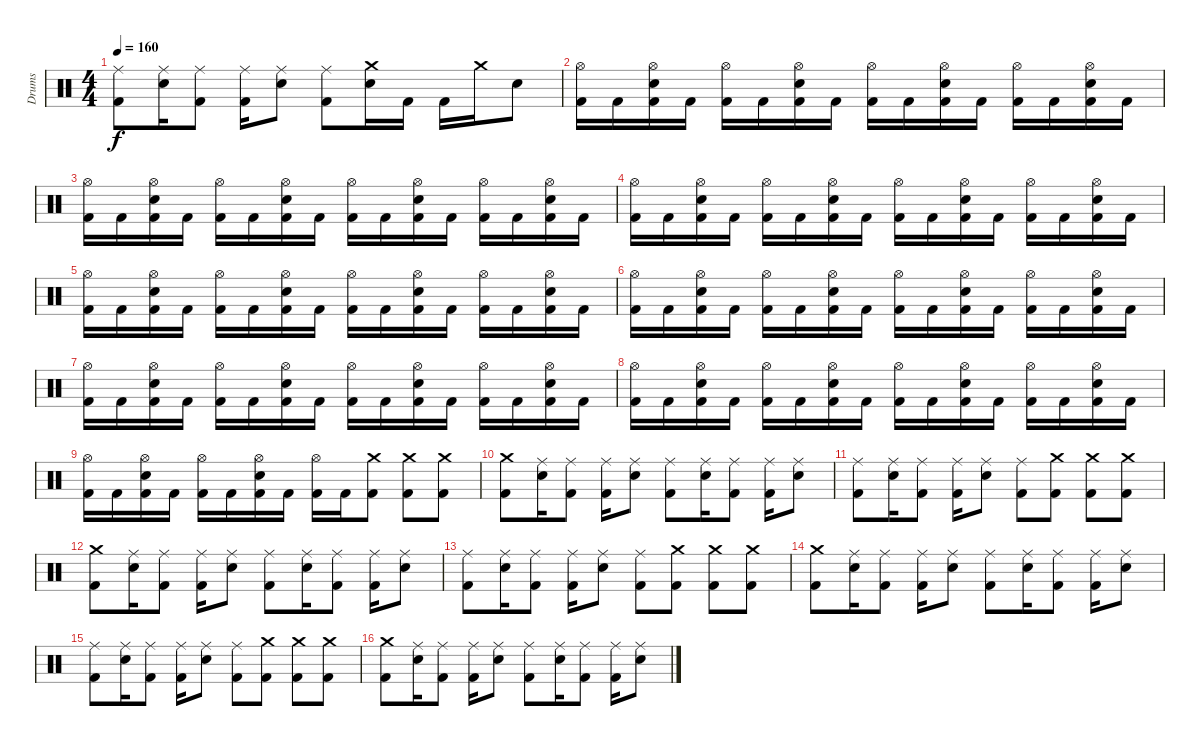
\track ("Drums" "Drums") {instrument percussion}
\staff {score}
\articulation defaults
\ts (4 4)
\tempo 160
\clef neutral
\ks c
("Ride (middle)" "Kick (hit) 2").8{dy f} ("Snare (hit) 2" "Ride (middle)").16 ("Ride (middle)" "Kick (hit) 2").8 ("Ride (middle)" "Kick (hit) 2").16 ("Snare (hit) 2" "Ride (middle)").8 ("Ride (middle)" "Kick (hit) 2").8 ("Snare (hit) 2" "Crash medium (hit)").16 "Kick (hit) 2".16 "Kick (hit) 2".16 "Crash medium (hit)".16 "Snare (hit) 2".8 |
("Hi-Hat (open)" "Kick (hit) 2").16 "Kick (hit) 2".16 ("Snare (hit) 2" "Hi-Hat (open)" "Kick (hit) 2").16 "Kick (hit) 2".16 ("Hi-Hat (open)" "Kick (hit) 2").16 "Kick (hit) 2".16 ("Snare (hit) 2" "Hi-Hat (open)" "Kick (hit) 2").16 "Kick (hit) 2".16 ("Hi-Hat (open)" "Kick (hit) 2").16 "Kick (hit) 2".16 ("Snare (hit) 2" "Hi-Hat (open)" "Kick (hit) 2").16 "Kick (hit) 2".16 ("Hi-Hat (open)" "Kick (hit) 2").16 "Kick (hit) 2".16 ("Snare (hit) 2" "Hi-Hat (open)" "Kick (hit) 2").16 "Kick (hit) 2".16 |
("Hi-Hat (open)" "Kick (hit) 2").16 "Kick (hit) 2".16 ("Snare (hit) 2" "Hi-Hat (open)" "Kick (hit) 2").16 "Kick (hit) 2".16 ("Hi-Hat (open)" "Kick (hit) 2").16 "Kick (hit) 2".16 ("Snare (hit) 2" "Hi-Hat (open)" "Kick (hit) 2").16 "Kick (hit) 2".16 ("Hi-Hat (open)" "Kick (hit) 2").16 "Kick (hit) 2".16 ("Snare (hit) 2" "Hi-Hat (open)" "Kick (hit) 2").16 "Kick (hit) 2".16 ("Hi-Hat (open)" "Kick (hit) 2").16 "Kick (hit) 2".16 ("Snare (hit) 2" "Hi-Hat (open)" "Kick (hit) 2").16 "Kick (hit) 2".16 |
("Hi-Hat (open)" "Kick (hit) 2").16 "Kick (hit) 2".16 ("Snare (hit) 2" "Hi-Hat (open)" "Kick (hit) 2").16 "Kick (hit) 2".16 ("Hi-Hat (open)" "Kick (hit) 2").16 "Kick (hit) 2".16 ("Snare (hit) 2" "Hi-Hat (open)" "Kick (hit) 2").16 "Kick (hit) 2".16 ("Hi-Hat (open)" "Kick (hit) 2").16 "Kick (hit) 2".16 ("Snare (hit) 2" "Hi-Hat (open)" "Kick (hit) 2").16 "Kick (hit) 2".16 ("Hi-Hat (open)" "Kick (hit) 2").16 "Kick (hit) 2".16 ("Snare (hit) 2" "Hi-Hat (open)" "Kick (hit) 2").16 "Kick (hit) 2".16 |
("Hi-Hat (open)" "Kick (hit) 2").16 "Kick (hit) 2".16 ("Snare (hit) 2" "Hi-Hat (open)" "Kick (hit) 2").16 "Kick (hit) 2".16 ("Hi-Hat (open)" "Kick (hit) 2").16 "Kick (hit) 2".16 ("Snare (hit) 2" "Hi-Hat (open)" "Kick (hit) 2").16 "Kick (hit) 2".16 ("Hi-Hat (open)" "Kick (hit) 2").16 "Kick (hit) 2".16 ("Snare (hit) 2" "Hi-Hat (open)" "Kick (hit) 2").16 "Kick (hit) 2".16 ("Hi-Hat (open)" "Kick (hit) 2").16 "Kick (hit) 2".16 ("Snare (hit) 2" "Hi-Hat (open)" "Kick (hit) 2").16 "Kick (hit) 2".16 |
("Hi-Hat (open)" "Kick (hit) 2").16 "Kick (hit) 2".16 ("Snare (hit) 2" "Hi-Hat (open)" "Kick (hit) 2").16 "Kick (hit) 2".16 ("Hi-Hat (open)" "Kick (hit) 2").16 "Kick (hit) 2".16 ("Snare (hit) 2" "Hi-Hat (open)" "Kick (hit) 2").16 "Kick (hit) 2".16 ("Hi-Hat (open)" "Kick (hit) 2").16 "Kick (hit) 2".16 ("Snare (hit) 2" "Hi-Hat (open)" "Kick (hit) 2").16 "Kick (hit) 2".16 ("Hi-Hat (open)" "Kick (hit) 2").16 "Kick (hit) 2".16 ("Snare (hit) 2" "Hi-Hat (open)" "Kick (hit) 2").16 "Kick (hit) 2".16 |
("Hi-Hat (open)" "Kick (hit) 2").16 "Kick (hit) 2".16 ("Snare (hit) 2" "Hi-Hat (open)" "Kick (hit) 2").16 "Kick (hit) 2".16 ("Hi-Hat (open)" "Kick (hit) 2").16 "Kick (hit) 2".16 ("Snare (hit) 2" "Hi-Hat (open)" "Kick (hit) 2").16 "Kick (hit) 2".16 ("Hi-Hat (open)" "Kick (hit) 2").16 "Kick (hit) 2".16 ("Snare (hit) 2" "Hi-Hat (open)" "Kick (hit) 2").16 "Kick (hit) 2".16 ("Hi-Hat (open)" "Kick (hit) 2").16 "Kick (hit) 2".16 ("Snare (hit) 2" "Hi-Hat (open)" "Kick (hit) 2").16 "Kick (hit) 2".16 |
("Hi-Hat (open)" "Kick (hit) 2").16 "Kick (hit) 2".16 ("Snare (hit) 2" "Hi-Hat (open)" "Kick (hit) 2").16 "Kick (hit) 2".16 ("Hi-Hat (open)" "Kick (hit) 2").16 "Kick (hit) 2".16 ("Snare (hit) 2" "Hi-Hat (open)" "Kick (hit) 2").16 "Kick (hit) 2".16 ("Hi-Hat (open)" "Kick (hit) 2").16 "Kick (hit) 2".16 ("Snare (hit) 2" "Hi-Hat (open)" "Kick (hit) 2").16 "Kick (hit) 2".16 ("Hi-Hat (open)" "Kick (hit) 2").16 "Kick (hit) 2".16 ("Snare (hit) 2" "Hi-Hat (open)" "Kick (hit) 2").16 "Kick (hit) 2".16 |
("Hi-Hat (open)" "Kick (hit) 2").16 "Kick (hit) 2".16 ("Snare (hit) 2" "Hi-Hat (open)" "Kick (hit) 2").16 "Kick (hit) 2".16 ("Hi-Hat (open)" "Kick (hit) 2").16 "Kick (hit) 2".16 ("Snare (hit) 2" "Hi-Hat (open)" "Kick (hit) 2").16 "Kick (hit) 2".16 ("Hi-Hat (open)" "Kick (hit) 2").16 "Kick (hit) 2".16 ("Crash medium (hit)" "Kick (hit) 2").8 ("Crash medium (hit)" "Kick (hit) 2").8 ("Crash medium (hit)" "Kick (hit) 2").8 |
("Crash medium (hit)" "Kick (hit) 2").8 ("Snare (hit) 2" "Ride (middle)").16 ("Ride (middle)" "Kick (hit) 2").8 ("Ride (middle)" "Kick (hit) 2").16 ("Snare (hit) 2" "Ride (middle)").8 ("Ride (middle)" "Kick (hit) 2").8 ("Snare (hit) 2" "Ride (middle)").16 ("Ride (middle)" "Kick (hit) 2").8 ("Ride (middle)" "Kick (hit) 2").16 ("Snare (hit) 2" "Ride (middle)").8 |
("Ride (middle)" "Kick (hit) 2").8 ("Snare (hit) 2" "Ride (middle)").16 ("Ride (middle)" "Kick (hit) 2").8 ("Ride (middle)" "Kick (hit) 2").16 ("Snare (hit) 2" "Ride (middle)").8 ("Ride (middle)" "Kick (hit) 2").8 ("Crash medium (hit)" "Kick (hit) 2").8 ("Crash medium (hit)" "Kick (hit) 2").8 ("Crash medium (hit)" "Kick (hit) 2").8 |
("Crash medium (hit)" "Kick (hit) 2").8 ("Snare (hit) 2" "Ride (middle)").16 ("Ride (middle)" "Kick (hit) 2").8 ("Ride (middle)" "Kick (hit) 2").16 ("Snare (hit) 2" "Ride (middle)").8 ("Ride (middle)" "Kick (hit) 2").8 ("Snare (hit) 2" "Ride (middle)").16 ("Ride (middle)" "Kick (hit) 2").8 ("Ride (middle)" "Kick (hit) 2").16 ("Snare (hit) 2" "Ride (middle)").8 |
("Ride (middle)" "Kick (hit) 2").8 ("Snare (hit) 2" "Ride (middle)").16 ("Ride (middle)" "Kick (hit) 2").8 ("Ride (middle)" "Kick (hit) 2").16 ("Snare (hit) 2" "Ride (middle)").8 ("Ride (middle)" "Kick (hit) 2").8 ("Crash medium (hit)" "Kick (hit) 2").8 ("Crash medium (hit)" "Kick (hit) 2").8 ("Crash medium (hit)" "Kick (hit) 2").8 |
("Crash medium (hit)" "Kick (hit) 2").8 ("Snare (hit) 2" "Ride (middle)").16 ("Ride (middle)" "Kick (hit) 2").8 ("Ride (middle)" "Kick (hit) 2").16 ("Snare (hit) 2" "Ride (middle)").8 ("Ride (middle)" "Kick (hit) 2").8 ("Snare (hit) 2" "Ride (middle)").16 ("Ride (middle)" "Kick (hit) 2").8 ("Ride (middle)" "Kick (hit) 2").16 ("Snare (hit) 2" "Ride (middle)").8 |
("Ride (middle)" "Kick (hit) 2").8 ("Snare (hit) 2" "Ride (middle)").16 ("Ride (middle)" "Kick (hit) 2").8 ("Ride (middle)" "Kick (hit) 2").16 ("Snare (hit) 2" "Ride (middle)").8 ("Ride (middle)" "Kick (hit) 2").8 ("Crash medium (hit)" "Kick (hit) 2").8 ("Crash medium (hit)" "Kick (hit) 2").8 ("Crash medium (hit)" "Kick (hit) 2").8 |
("Crash medium (hit)" "Kick (hit) 2").8 ("Snare (hit) 2" "Ride (middle)").16 ("Ride (middle)" "Kick (hit) 2").8 ("Ride (middle)" "Kick (hit) 2").16 ("Snare (hit) 2" "Ride (middle)").8 ("Ride (middle)" "Kick (hit) 2").8 ("Snare (hit) 2" "Ride (middle)").16 ("Ride (middle)" "Kick (hit) 2").8 ("Ride (middle)" "Kick (hit) 2").16 ("Snare (hit) 2" "Ride (middle)").8
